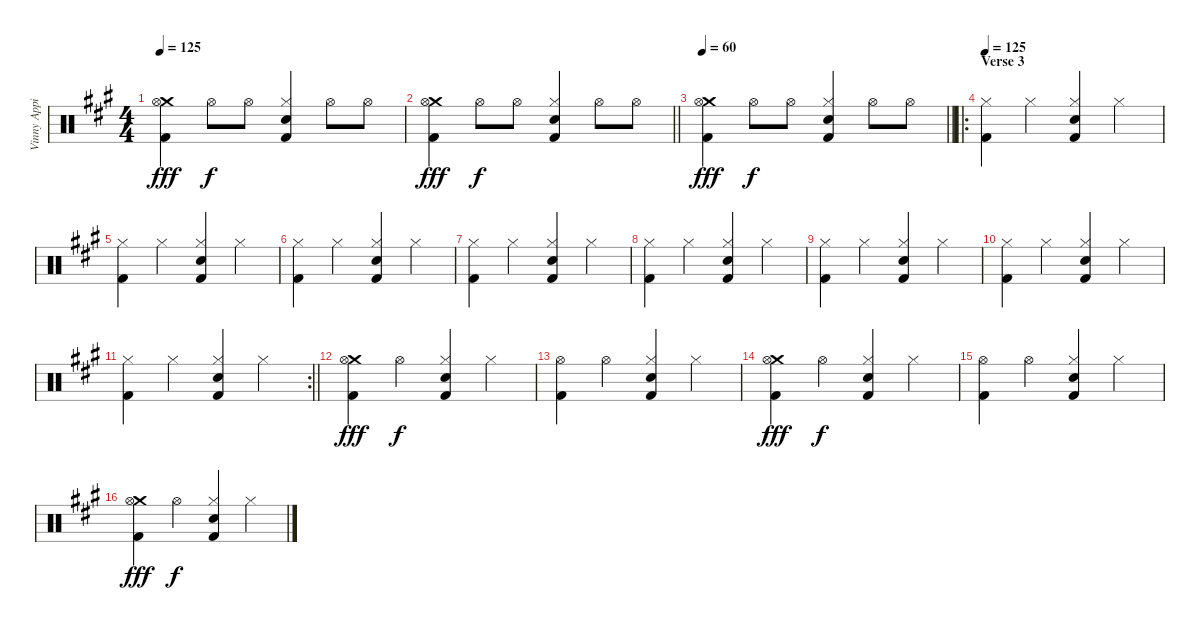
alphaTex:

\track ("Vinny Appice" "Vinny Appi") {instrument percussion}
\staff {score}
\articulation defaults
\ts (4 4)
\tempo 125
\clef neutral
\ks a
("Crash medium (hit)" "Hi-Hat (open)" "Kick (hit) 2").4{dy fff} "Hi-Hat (open)".8{dy f} "Hi-Hat (open)".8 ("Hi-Hat (closed)" "Snare (hit) 2" "Kick (hit) 2").4 "Hi-Hat (open)".8 "Hi-Hat (open)".8 |
\barLineRight lightlight
("Crash medium (hit)" "Hi-Hat (open)" "Kick (hit) 2").4{dy fff} "Hi-Hat (open)".8{dy f} "Hi-Hat (open)".8 ("Hi-Hat (closed)" "Snare (hit) 2" "Kick (hit) 2").4 "Hi-Hat (open)".8 "Hi-Hat (open)".8 |
\tempo 60
\barLineRight lightlight
("Crash medium (hit)" "Hi-Hat (open)" "Kick (hit) 2").4{dy fff} "Hi-Hat (open)".8{dy f} "Hi-Hat (open)".8 ("Hi-Hat (closed)" "Snare (hit) 2" "Kick (hit) 2").4 "Hi-Hat (open)".8 "Hi-Hat (open)".8 |
\ro
\section ("" "Verse 3")
\tempo 125
("Hi-Hat (closed)" "Kick (hit) 2").4 "Hi-Hat (closed)".4 ("Hi-Hat (closed)" "Snare (hit) 2" "Kick (hit) 2").4 "Hi-Hat (closed)".4 |
("Hi-Hat (closed)" "Kick (hit) 2").4 "Hi-Hat (closed)".4 ("Hi-Hat (closed)" "Snare (hit) 2" "Kick (hit) 2").4 "Hi-Hat (closed)".4 |
("Hi-Hat (closed)" "Kick (hit) 2").4 "Hi-Hat (closed)".4 ("Hi-Hat (closed)" "Snare (hit) 2" "Kick (hit) 2").4 "Hi-Hat (closed)".4 |
("Hi-Hat (closed)" "Kick (hit) 2").4 "Hi-Hat (closed)".4 ("Hi-Hat (closed)" "Snare (hit) 2" "Kick (hit) 2").4 "Hi-Hat (closed)".4 |
("Hi-Hat (closed)" "Kick (hit) 2").4 "Hi-Hat (closed)".4 ("Hi-Hat (closed)" "Snare (hit) 2" "Kick (hit) 2").4 "Hi-Hat (closed)".4 |
("Hi-Hat (closed)" "Kick (hit) 2").4 "Hi-Hat (closed)".4 ("Hi-Hat (closed)" "Snare (hit) 2" "Kick (hit) 2").4 "Hi-Hat (closed)".4 |
("Hi-Hat (closed)" "Kick (hit) 2").4 "Hi-Hat (closed)".4 ("Hi-Hat (closed)" "Snare (hit) 2" "Kick (hit) 2").4 "Hi-Hat (closed)".4 |
\rc 2
\barLineRight lightlight
("Hi-Hat (closed)" "Kick (hit) 2").4 "Hi-Hat (closed)".4 ("Hi-Hat (closed)" "Snare (hit) 2" "Kick (hit) 2").4 "Hi-Hat (closed)".4 |
("Crash medium (hit)" "Hi-Hat (open)" "Kick (hit) 2").4{dy fff} "Hi-Hat (open)".4{dy f} ("Hi-Hat (closed)" "Snare (hit) 2" "Kick (hit) 2").4 "Hi-Hat (closed)".4 |
("Hi-Hat (open)" "Kick (hit) 2").4 "Hi-Hat (open)".4 ("Hi-Hat (closed)" "Snare (hit) 2" "Kick (hit) 2").4 "Hi-Hat (closed)".4 |
("Crash medium (hit)" "Hi-Hat (open)" "Kick (hit) 2").4{dy fff} "Hi-Hat (open)".4{dy f} ("Hi-Hat (closed)" "Snare (hit) 2" "Kick (hit) 2").4 "Hi-Hat (closed)".4 |
("Hi-Hat (open)" "Kick (hit) 2").4 "Hi-Hat (open)".4 ("Hi-Hat (closed)" "Snare (hit) 2" "Kick (hit) 2").4 "Hi-Hat (closed)".4 |
("Crash medium (hit)" "Hi-Hat (open)" "Kick (hit) 2").4{dy fff} "Hi-Hat (open)".4{dy f} ("Hi-Hat (closed)" "Snare (hit) 2" "Kick (hit) 2").4 "Hi-Hat (closed)".4
